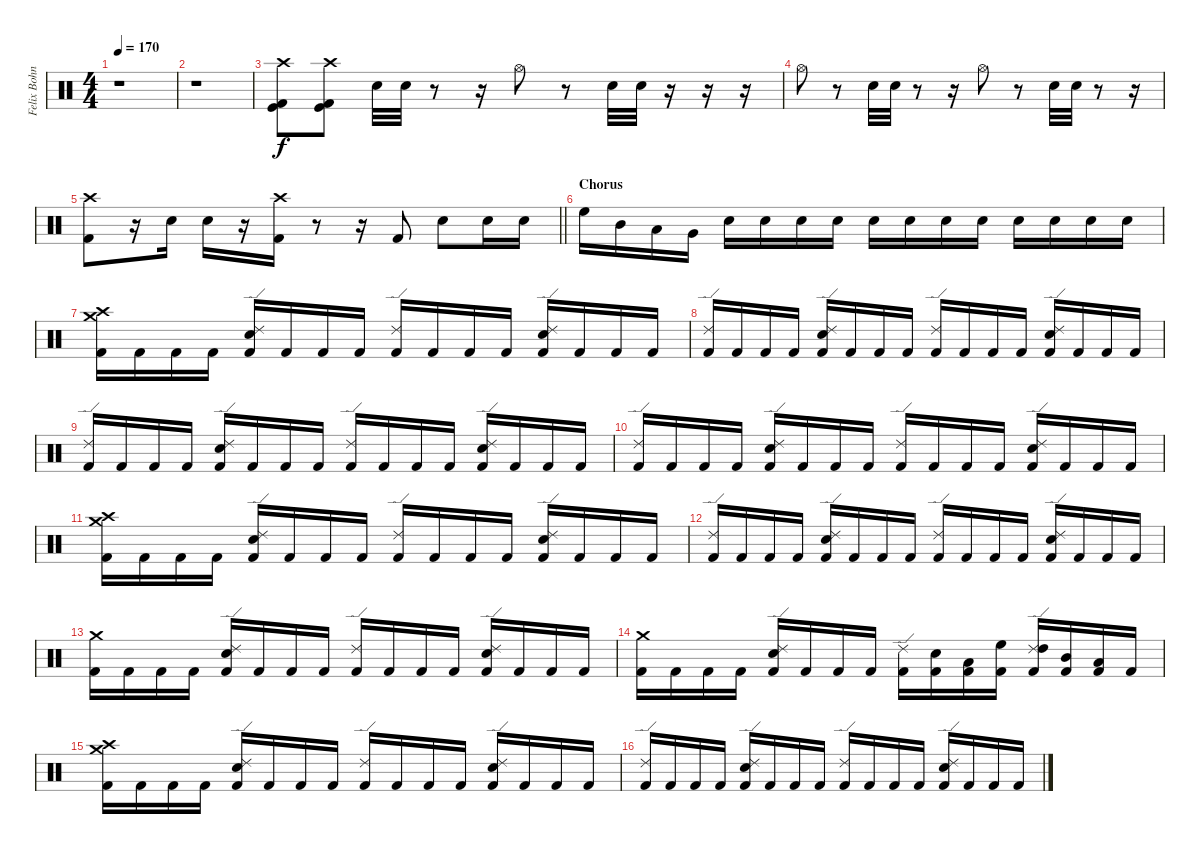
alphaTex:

\track ("Felix Bohnke - Drums" "Felix Bohn") {instrument percussion}
\staff {score}
\articulation defaults
\ts (4 4)
\tempo 170
\clef neutral
\ks c
r.1{dy f} |
r.1 |
("Crash high (hit)" "Kick (hit)" "Kick (hit) 2").8 ("Crash high (hit)" "Kick (hit)" "Kick (hit) 2").8 "Electric Snare (hit)".32 "Electric Snare (hit)".32 r.8 r.16 "Hi-Hat (open)".8 r.8 "Electric Snare (hit)".32 "Electric Snare (hit)".32 r.16 r.16 r.16 |
"Hi-Hat (open)".8 r.8 "Electric Snare (hit)".32 "Electric Snare (hit)".32 r.8 r.16 "Hi-Hat (open)".8 r.8 "Electric Snare (hit)".32 "Electric Snare (hit)".32 r.8 r.16 |
\barLineRight lightlight
("Crash high (hit)" "Kick (hit) 2").8 r.16 "Electric Snare (hit)".16 "Electric Snare (hit)".16 r.16 ("Crash high (hit)" "Kick (hit) 2").16 r.8 r.16 "Kick (hit) 2".8 "Electric Snare (hit)".8 "Electric Snare (hit)".16 "Electric Snare (hit)".16 |
\section ("" "Chorus")
"High Floor Tom (hit)".16 "Mid Tom (hit)".16 "Low Tom (hit)".16 "Very Low Tom (hit)".16 "Electric Snare (hit)".16 "Electric Snare (hit)".16 "Electric Snare (hit)".16 "Electric Snare (hit)".16 "Electric Snare (hit)".16{volume 5} "Electric Snare (hit)".16{volume 6} "Electric Snare (hit)".16{volume 7} "Electric Snare (hit)".16{volume 8} "Electric Snare (hit)".16{volume 9} "Electric Snare (hit)".16{volume 11} "Electric Snare (hit)".16{volume 13} "Electric Snare (hit)".16{volume 16} |
("Crash high (hit)" "Crash medium (hit)" "Kick (hit) 2").16 "Kick (hit) 2".16 "Kick (hit) 2".16 "Kick (hit) 2".16 ("Ride (edge) 2" "Snare (hit) 2" "Kick (hit) 2").16 "Kick (hit) 2".16 "Kick (hit) 2".16 "Kick (hit) 2".16 ("Ride (edge) 2" "Kick (hit) 2").16 "Kick (hit) 2".16 "Kick (hit) 2".16 "Kick (hit) 2".16 ("Ride (edge) 2" "Snare (hit) 2" "Kick (hit) 2").16 "Kick (hit) 2".16 "Kick (hit) 2".16 "Kick (hit) 2".16 |
("Ride (edge) 2" "Kick (hit) 2").16 "Kick (hit) 2".16 "Kick (hit) 2".16 "Kick (hit) 2".16 ("Ride (edge) 2" "Snare (hit) 2" "Kick (hit) 2").16 "Kick (hit) 2".16 "Kick (hit) 2".16 "Kick (hit) 2".16 ("Ride (edge) 2" "Kick (hit) 2").16 "Kick (hit) 2".16 "Kick (hit) 2".16 "Kick (hit) 2".16 ("Ride (edge) 2" "Snare (hit) 2" "Kick (hit) 2").16 "Kick (hit) 2".16 "Kick (hit) 2".16 "Kick (hit) 2".16 |
("Ride (edge) 2" "Kick (hit) 2").16 "Kick (hit) 2".16 "Kick (hit) 2".16 "Kick (hit) 2".16 ("Ride (edge) 2" "Snare (hit) 2" "Kick (hit) 2").16 "Kick (hit) 2".16 "Kick (hit) 2".16 "Kick (hit) 2".16 ("Ride (edge) 2" "Kick (hit) 2").16 "Kick (hit) 2".16 "Kick (hit) 2".16 "Kick (hit) 2".16 ("Ride (edge) 2" "Snare (hit) 2" "Kick (hit) 2").16 "Kick (hit) 2".16 "Kick (hit) 2".16 "Kick (hit) 2".16 |
("Ride (edge) 2" "Kick (hit) 2").16 "Kick (hit) 2".16 "Kick (hit) 2".16 "Kick (hit) 2".16 ("Ride (edge) 2" "Snare (hit) 2" "Kick (hit) 2").16 "Kick (hit) 2".16 "Kick (hit) 2".16 "Kick (hit) 2".16 ("Ride (edge) 2" "Kick (hit) 2").16 "Kick (hit) 2".16 "Kick (hit) 2".16 "Kick (hit) 2".16 ("Ride (edge) 2" "Snare (hit) 2" "Kick (hit) 2").16 "Kick (hit) 2".16 "Kick (hit) 2".16 "Kick (hit) 2".16 |
("Crash high (hit)" "Crash medium (hit)" "Kick (hit) 2").16 "Kick (hit) 2".16 "Kick (hit) 2".16 "Kick (hit) 2".16 ("Ride (edge) 2" "Snare (hit) 2" "Kick (hit) 2").16 "Kick (hit) 2".16 "Kick (hit) 2".16 "Kick (hit) 2".16 ("Ride (edge) 2" "Kick (hit) 2").16 "Kick (hit) 2".16 "Kick (hit) 2".16 "Kick (hit) 2".16 ("Ride (edge) 2" "Snare (hit) 2" "Kick (hit) 2").16 "Kick (hit) 2".16 "Kick (hit) 2".16 "Kick (hit) 2".16 |
("Ride (edge) 2" "Kick (hit) 2").16 "Kick (hit) 2".16 "Kick (hit) 2".16 "Kick (hit) 2".16 ("Ride (edge) 2" "Snare (hit) 2" "Kick (hit) 2").16 "Kick (hit) 2".16 "Kick (hit) 2".16 "Kick (hit) 2".16 ("Ride (edge) 2" "Kick (hit) 2").16 "Kick (hit) 2".16 "Kick (hit) 2".16 "Kick (hit) 2".16 ("Ride (edge) 2" "Snare (hit) 2" "Kick (hit) 2").16 "Kick (hit) 2".16 "Kick (hit) 2".16 "Kick (hit) 2".16 |
("Crash medium (hit)" "Kick (hit) 2").16 "Kick (hit) 2".16 "Kick (hit) 2".16 "Kick (hit) 2".16 ("Ride (edge) 2" "Snare (hit) 2" "Kick (hit) 2").16 "Kick (hit) 2".16 "Kick (hit) 2".16 "Kick (hit) 2".16 ("Ride (edge) 2" "Kick (hit) 2").16 "Kick (hit) 2".16 "Kick (hit) 2".16 "Kick (hit) 2".16 ("Ride (edge) 2" "Snare (hit) 2" "Kick (hit) 2").16 "Kick (hit) 2".16 "Kick (hit) 2".16 "Kick (hit) 2".16 |
("Crash medium (hit)" "Kick (hit) 2").16 "Kick (hit) 2".16 "Kick (hit) 2".16 "Kick (hit) 2".16 ("Ride (edge) 2" "Snare (hit) 2" "Kick (hit) 2").16 "Kick (hit) 2".16 "Kick (hit) 2".16 "Kick (hit) 2".16 ("Ride (edge) 2" "Kick (hit) 2").16 ("Snare (hit) 2" "Kick (hit) 2").16 ("Low Tom (hit)" "Kick (hit) 2").16 ("High Floor Tom (hit)" "Kick (hit) 2").16 ("Ride (edge) 2" "High Tom (hit)" "Kick (hit) 2").16 ("Mid Tom (hit)" "Kick (hit) 2").16 ("Low Tom (hit)" "Kick (hit) 2").16 "Kick (hit) 2".16 |
("Crash high (hit)" "Crash medium (hit)" "Kick (hit) 2").16 "Kick (hit) 2".16 "Kick (hit) 2".16 "Kick (hit) 2".16 ("Ride (edge) 2" "Snare (hit) 2" "Kick (hit) 2").16 "Kick (hit) 2".16 "Kick (hit) 2".16 "Kick (hit) 2".16 ("Ride (edge) 2" "Kick (hit) 2").16 "Kick (hit) 2".16 "Kick (hit) 2".16 "Kick (hit) 2".16 ("Ride (edge) 2" "Snare (hit) 2" "Kick (hit) 2").16 "Kick (hit) 2".16 "Kick (hit) 2".16 "Kick (hit) 2".16 |
("Ride (edge) 2" "Kick (hit) 2").16 "Kick (hit) 2".16 "Kick (hit) 2".16 "Kick (hit) 2".16 ("Ride (edge) 2" "Snare (hit) 2" "Kick (hit) 2").16 "Kick (hit) 2".16 "Kick (hit) 2".16 "Kick (hit) 2".16 ("Ride (edge) 2" "Kick (hit) 2").16 "Kick (hit) 2".16 "Kick (hit) 2".16 "Kick (hit) 2".16 ("Ride (edge) 2" "Snare (hit) 2" "Kick (hit) 2").16 "Kick (hit) 2".16 "Kick (hit) 2".16 "Kick (hit) 2".16
